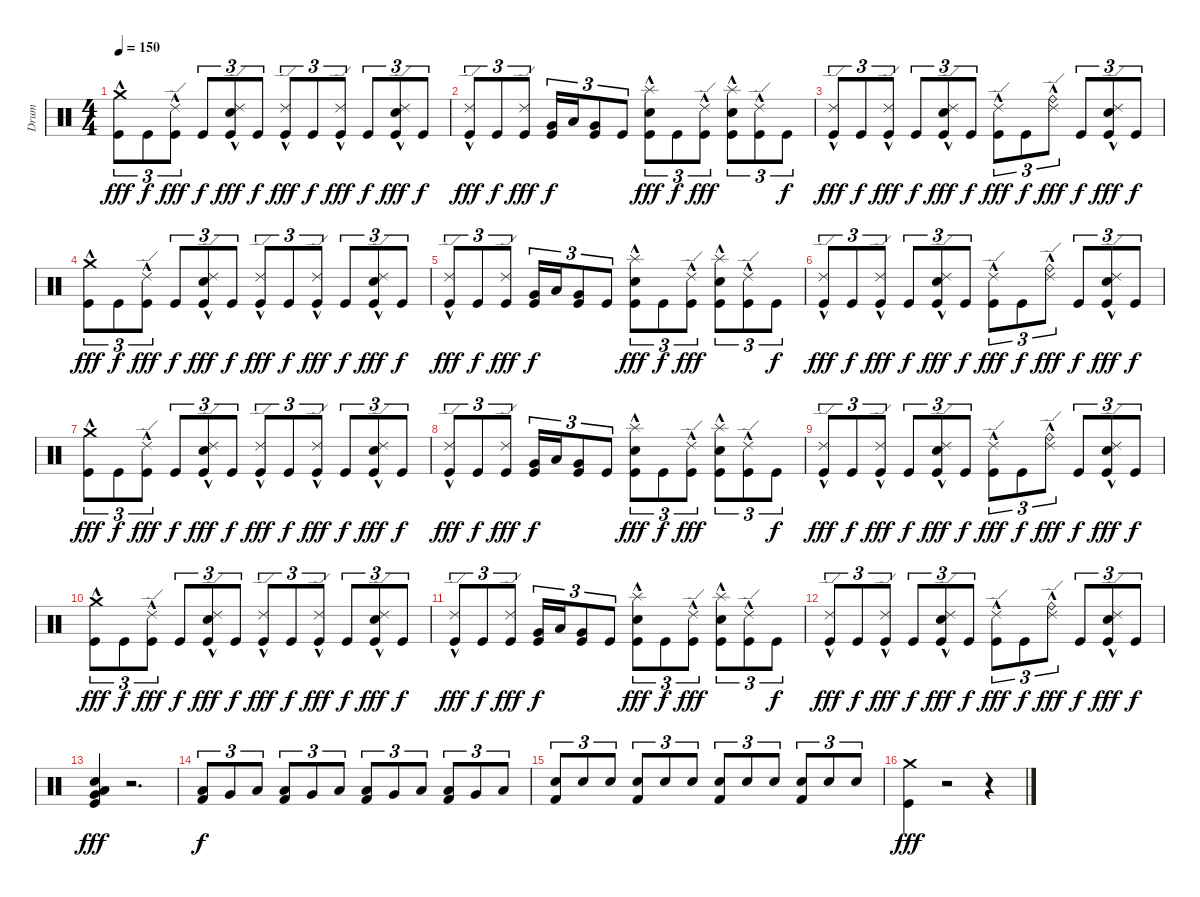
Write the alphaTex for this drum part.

\track ("Drum" "Drum") {instrument percussion}
\staff {score}
\articulation defaults
\ts (4 4)
\tempo 150
\clef neutral
\ks c
("Crash medium (hit)"{hac} "Kick (hit)").8{tu (3 2) dy fff} "Kick (hit)".8{tu (3 2) dy f} ("Ride (edge) 2"{hac} "Kick (hit)").8{tu (3 2) dy fff} "Kick (hit)".8{tu (3 2) dy f} ("Ride (edge) 2"{hac} "Snare (hit) 2" "Kick (hit)").8{tu (3 2) dy fff} "Kick (hit)".8{tu (3 2) dy f} ("Ride (edge) 2"{hac} "Kick (hit)").8{tu (3 2) dy fff} "Kick (hit)".8{tu (3 2) dy f} ("Ride (edge) 2"{hac} "Kick (hit)").8{tu (3 2) dy fff} "Kick (hit)".8{tu (3 2) dy f} ("Ride (edge) 2"{hac} "Snare (hit) 2" "Kick (hit)").8{tu (3 2) dy fff} "Kick (hit)".8{tu (3 2) dy f} |
("Ride (edge) 2"{hac} "Kick (hit)").8{tu (3 2) dy fff} "Kick (hit)".8{tu (3 2) dy f} ("Ride (edge) 2" "Kick (hit)").8{tu (3 2) dy fff} ("Very Low Tom (hit)" "Kick (hit)").16{tu (3 2) dy f} "Low Floor Tom (hit)".16{tu (3 2)} ("Very Low Tom (hit)" "Kick (hit)").8{tu (3 2)} "Kick (hit)".8{tu (3 2)} ("Splash (hit)"{hac} "Snare (hit) 2" "Kick (hit)").8{tu (3 2) dy fff} "Kick (hit)".8{tu (3 2) dy f} ("Ride (edge) 2"{hac} "Kick (hit)").8{tu (3 2) dy fff} ("Splash (hit)"{hac} "Snare (hit) 2" "Kick (hit)").8{tu (3 2)} ("Ride (edge) 2"{hac} "Kick (hit)").8{tu (3 2)} "Kick (hit)".8{tu (3 2) dy f} |
("Ride (edge) 2"{hac} "Kick (hit)").8{tu (3 2) dy fff} "Kick (hit)".8{tu (3 2) dy f} ("Ride (edge) 2"{hac} "Kick (hit)").8{tu (3 2) dy fff} "Kick (hit)".8{tu (3 2) dy f} ("Ride (edge) 2"{hac} "Snare (hit) 2" "Kick (hit)").8{tu (3 2) dy fff} "Kick (hit)".8{tu (3 2) dy f} ("Ride (edge) 2"{hac} "Kick (hit)").8{tu (3 2) dy fff} "Kick (hit)".8{tu (3 2) dy f} ("Ride (edge) 2"{hac} "Ride (bell)").8{tu (3 2) dy fff} "Kick (hit)".8{tu (3 2) dy f} ("Ride (edge) 2"{hac} "Snare (hit) 2" "Kick (hit)").8{tu (3 2) dy fff} "Kick (hit)".8{tu (3 2) dy f} |
("Crash medium (hit)"{hac} "Kick (hit)").8{tu (3 2) dy fff} "Kick (hit)".8{tu (3 2) dy f} ("Ride (edge) 2"{hac} "Kick (hit)").8{tu (3 2) dy fff} "Kick (hit)".8{tu (3 2) dy f} ("Ride (edge) 2"{hac} "Snare (hit) 2" "Kick (hit)").8{tu (3 2) dy fff} "Kick (hit)".8{tu (3 2) dy f} ("Ride (edge) 2"{hac} "Kick (hit)").8{tu (3 2) dy fff} "Kick (hit)".8{tu (3 2) dy f} ("Ride (edge) 2"{hac} "Kick (hit)").8{tu (3 2) dy fff} "Kick (hit)".8{tu (3 2) dy f} ("Ride (edge) 2"{hac} "Snare (hit) 2" "Kick (hit)").8{tu (3 2) dy fff} "Kick (hit)".8{tu (3 2) dy f} |
("Ride (edge) 2"{hac} "Kick (hit)").8{tu (3 2) dy fff} "Kick (hit)".8{tu (3 2) dy f} ("Ride (edge) 2" "Kick (hit)").8{tu (3 2) dy fff} ("Very Low Tom (hit)" "Kick (hit)").16{tu (3 2) dy f} "Low Floor Tom (hit)".16{tu (3 2)} ("Very Low Tom (hit)" "Kick (hit)").8{tu (3 2)} "Kick (hit)".8{tu (3 2)} ("Splash (hit)"{hac} "Snare (hit) 2" "Kick (hit)").8{tu (3 2) dy fff} "Kick (hit)".8{tu (3 2) dy f} ("Ride (edge) 2"{hac} "Kick (hit)").8{tu (3 2) dy fff} ("Splash (hit)"{hac} "Snare (hit) 2" "Kick (hit)").8{tu (3 2)} ("Ride (edge) 2"{hac} "Kick (hit)").8{tu (3 2)} "Kick (hit)".8{tu (3 2) dy f} |
("Ride (edge) 2"{hac} "Kick (hit)").8{tu (3 2) dy fff} "Kick (hit)".8{tu (3 2) dy f} ("Ride (edge) 2"{hac} "Kick (hit)").8{tu (3 2) dy fff} "Kick (hit)".8{tu (3 2) dy f} ("Ride (edge) 2"{hac} "Snare (hit) 2" "Kick (hit)").8{tu (3 2) dy fff} "Kick (hit)".8{tu (3 2) dy f} ("Ride (edge) 2"{hac} "Kick (hit)").8{tu (3 2) dy fff} "Kick (hit)".8{tu (3 2) dy f} ("Ride (edge) 2"{hac} "Ride (bell)").8{tu (3 2) dy fff} "Kick (hit)".8{tu (3 2) dy f} ("Ride (edge) 2"{hac} "Snare (hit) 2" "Kick (hit)").8{tu (3 2) dy fff} "Kick (hit)".8{tu (3 2) dy f} |
("Crash medium (hit)"{hac} "Kick (hit)").8{tu (3 2) dy fff} "Kick (hit)".8{tu (3 2) dy f} ("Ride (edge) 2"{hac} "Kick (hit)").8{tu (3 2) dy fff} "Kick (hit)".8{tu (3 2) dy f} ("Ride (edge) 2"{hac} "Snare (hit) 2" "Kick (hit)").8{tu (3 2) dy fff} "Kick (hit)".8{tu (3 2) dy f} ("Ride (edge) 2"{hac} "Kick (hit)").8{tu (3 2) dy fff} "Kick (hit)".8{tu (3 2) dy f} ("Ride (edge) 2"{hac} "Kick (hit)").8{tu (3 2) dy fff} "Kick (hit)".8{tu (3 2) dy f} ("Ride (edge) 2"{hac} "Snare (hit) 2" "Kick (hit)").8{tu (3 2) dy fff} "Kick (hit)".8{tu (3 2) dy f} |
("Ride (edge) 2"{hac} "Kick (hit)").8{tu (3 2) dy fff} "Kick (hit)".8{tu (3 2) dy f} ("Ride (edge) 2" "Kick (hit)").8{tu (3 2) dy fff} ("Very Low Tom (hit)" "Kick (hit)").16{tu (3 2) dy f} "Low Floor Tom (hit)".16{tu (3 2)} ("Very Low Tom (hit)" "Kick (hit)").8{tu (3 2)} "Kick (hit)".8{tu (3 2)} ("Splash (hit)"{hac} "Snare (hit) 2" "Kick (hit)").8{tu (3 2) dy fff} "Kick (hit)".8{tu (3 2) dy f} ("Ride (edge) 2"{hac} "Kick (hit)").8{tu (3 2) dy fff} ("Splash (hit)"{hac} "Snare (hit) 2" "Kick (hit)").8{tu (3 2)} ("Ride (edge) 2"{hac} "Kick (hit)").8{tu (3 2)} "Kick (hit)".8{tu (3 2) dy f} |
("Ride (edge) 2"{hac} "Kick (hit)").8{tu (3 2) dy fff} "Kick (hit)".8{tu (3 2) dy f} ("Ride (edge) 2"{hac} "Kick (hit)").8{tu (3 2) dy fff} "Kick (hit)".8{tu (3 2) dy f} ("Ride (edge) 2"{hac} "Snare (hit) 2" "Kick (hit)").8{tu (3 2) dy fff} "Kick (hit)".8{tu (3 2) dy f} ("Ride (edge) 2"{hac} "Kick (hit)").8{tu (3 2) dy fff} "Kick (hit)".8{tu (3 2) dy f} ("Ride (edge) 2"{hac} "Ride (bell)").8{tu (3 2) dy fff} "Kick (hit)".8{tu (3 2) dy f} ("Ride (edge) 2"{hac} "Snare (hit) 2" "Kick (hit)").8{tu (3 2) dy fff} "Kick (hit)".8{tu (3 2) dy f} |
("Crash medium (hit)"{hac} "Kick (hit)").8{tu (3 2) dy fff} "Kick (hit)".8{tu (3 2) dy f} ("Ride (edge) 2"{hac} "Kick (hit)").8{tu (3 2) dy fff} "Kick (hit)".8{tu (3 2) dy f} ("Ride (edge) 2"{hac} "Snare (hit) 2" "Kick (hit)").8{tu (3 2) dy fff} "Kick (hit)".8{tu (3 2) dy f} ("Ride (edge) 2"{hac} "Kick (hit)").8{tu (3 2) dy fff} "Kick (hit)".8{tu (3 2) dy f} ("Ride (edge) 2"{hac} "Kick (hit)").8{tu (3 2) dy fff} "Kick (hit)".8{tu (3 2) dy f} ("Ride (edge) 2"{hac} "Snare (hit) 2" "Kick (hit)").8{tu (3 2) dy fff} "Kick (hit)".8{tu (3 2) dy f} |
("Ride (edge) 2"{hac} "Kick (hit)").8{tu (3 2) dy fff} "Kick (hit)".8{tu (3 2) dy f} ("Ride (edge) 2" "Kick (hit)").8{tu (3 2) dy fff} ("Very Low Tom (hit)" "Kick (hit)").16{tu (3 2) dy f} "Low Floor Tom (hit)".16{tu (3 2)} ("Very Low Tom (hit)" "Kick (hit)").8{tu (3 2)} "Kick (hit)".8{tu (3 2)} ("Splash (hit)"{hac} "Snare (hit) 2" "Kick (hit)").8{tu (3 2) dy fff} "Kick (hit)".8{tu (3 2) dy f} ("Ride (edge) 2"{hac} "Kick (hit)").8{tu (3 2) dy fff} ("Splash (hit)"{hac} "Snare (hit) 2" "Kick (hit)").8{tu (3 2)} ("Ride (edge) 2"{hac} "Kick (hit)").8{tu (3 2)} "Kick (hit)".8{tu (3 2) dy f} |
("Ride (edge) 2"{hac} "Kick (hit)").8{tu (3 2) dy fff} "Kick (hit)".8{tu (3 2) dy f} ("Ride (edge) 2"{hac} "Kick (hit)").8{tu (3 2) dy fff} "Kick (hit)".8{tu (3 2) dy f} ("Ride (edge) 2"{hac} "Snare (hit) 2" "Kick (hit)").8{tu (3 2) dy fff} "Kick (hit)".8{tu (3 2) dy f} ("Ride (edge) 2"{hac} "Kick (hit)").8{tu (3 2) dy fff} "Kick (hit)".8{tu (3 2) dy f} ("Ride (edge) 2"{hac} "Ride (bell)").8{tu (3 2) dy fff} "Kick (hit)".8{tu (3 2) dy f} ("Ride (edge) 2"{hac} "Snare (hit) 2" "Kick (hit)").8{tu (3 2) dy fff} "Kick (hit)".8{tu (3 2) dy f} |
("Very Low Tom (hit)" "Snare (hit) 2" "Low Floor Tom (hit)" "Kick (hit)").4{dy fff} r.2{d} |
("Low Tom (hit)" "Kick (hit) 2").8{tu (3 2) dy f} "Very Low Tom (hit)".8{tu (3 2)} "Low Floor Tom (hit)".8{tu (3 2)} ("Low Tom (hit)" "Kick (hit) 2").8{tu (3 2)} "Very Low Tom (hit)".8{tu (3 2)} "Low Floor Tom (hit)".8{tu (3 2)} ("Low Tom (hit)" "Kick (hit) 2").8{tu (3 2)} "Very Low Tom (hit)".8{tu (3 2)} "Low Floor Tom (hit)".8{tu (3 2)} ("Low Tom (hit)" "Kick (hit) 2").8{tu (3 2)} "Very Low Tom (hit)".8{tu (3 2)} "Low Floor Tom (hit)".8{tu (3 2)} |
("Snare (hit) 2" "Kick (hit) 2").8{tu (3 2)} "Snare (hit) 2".8{tu (3 2)} "Snare (hit) 2".8{tu (3 2)} ("Snare (hit) 2" "Kick (hit) 2").8{tu (3 2)} "Snare (hit) 2".8{tu (3 2)} "Snare (hit) 2".8{tu (3 2)} ("Snare (hit) 2" "Kick (hit) 2").8{tu (3 2)} "Snare (hit) 2".8{tu (3 2)} "Snare (hit) 2".8{tu (3 2)} ("Snare (hit) 2" "Kick (hit) 2").8{tu (3 2)} "Snare (hit) 2".8{tu (3 2)} "Snare (hit) 2".8{tu (3 2)} |
("Crash medium (hit)" "Kick (hit)").4{dy fff} r.2 r.4
